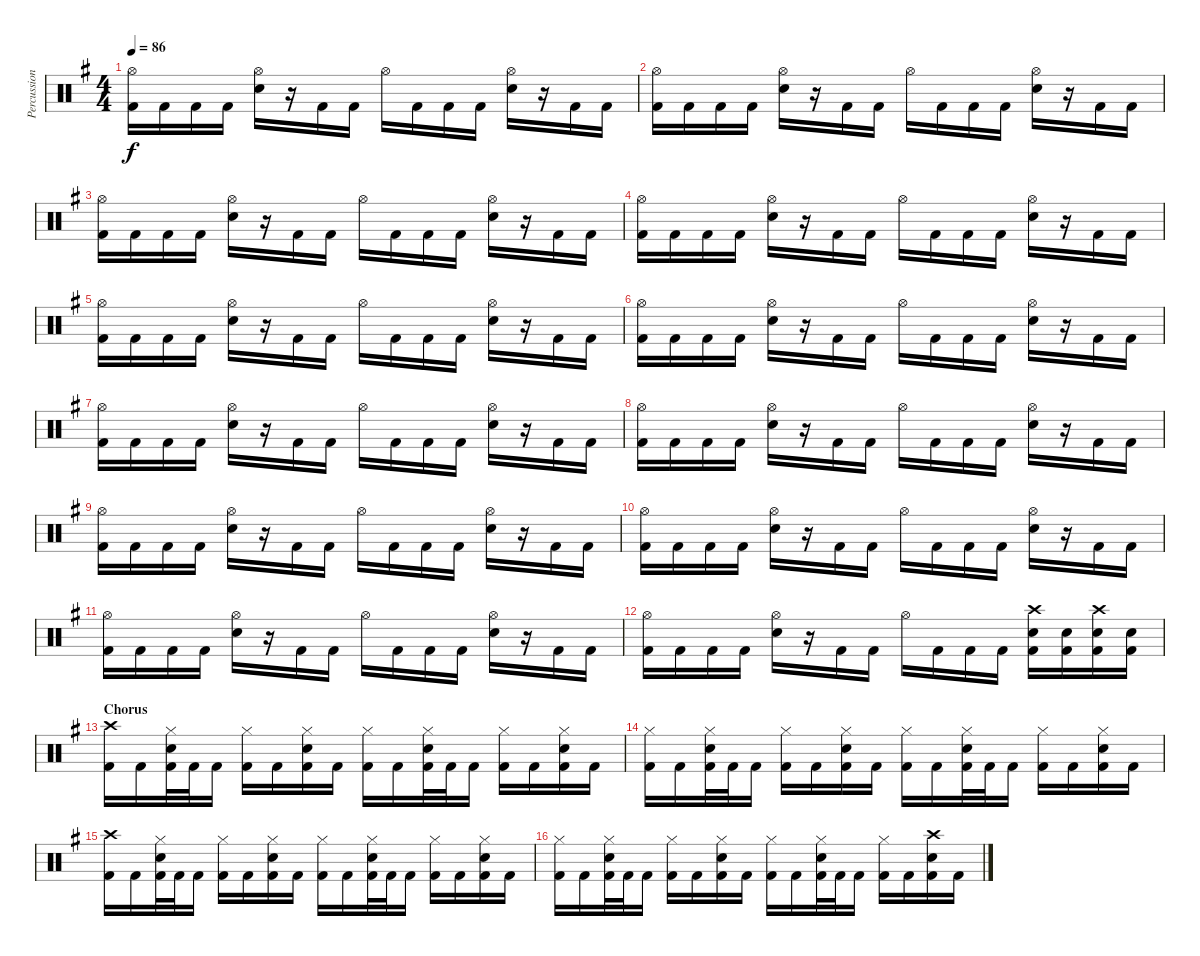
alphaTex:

\track ("Percussions" "Percussion") {instrument percussion}
\staff {score}
\articulation defaults
\ts (4 4)
\tempo 86
\clef neutral
\ks eminor
("Hi-Hat (open)" "Kick (hit) 2").16{dy f} "Kick (hit) 2".16 "Kick (hit) 2".16 "Kick (hit) 2".16 ("Hi-Hat (open)" "Snare (hit) 2").16 r.16 "Kick (hit) 2".16 "Kick (hit) 2".16 "Hi-Hat (open)".16 "Kick (hit) 2".16 "Kick (hit) 2".16 "Kick (hit) 2".16 ("Hi-Hat (open)" "Snare (hit) 2").16 r.16 "Kick (hit) 2".16 "Kick (hit) 2".16 |
("Hi-Hat (open)" "Kick (hit) 2").16 "Kick (hit) 2".16 "Kick (hit) 2".16 "Kick (hit) 2".16 ("Hi-Hat (open)" "Snare (hit) 2").16 r.16 "Kick (hit) 2".16 "Kick (hit) 2".16 "Hi-Hat (open)".16 "Kick (hit) 2".16 "Kick (hit) 2".16 "Kick (hit) 2".16 ("Hi-Hat (open)" "Snare (hit) 2").16 r.16 "Kick (hit) 2".16 "Kick (hit) 2".16 |
("Hi-Hat (open)" "Kick (hit) 2").16 "Kick (hit) 2".16 "Kick (hit) 2".16 "Kick (hit) 2".16 ("Hi-Hat (open)" "Snare (hit) 2").16 r.16 "Kick (hit) 2".16 "Kick (hit) 2".16 "Hi-Hat (open)".16 "Kick (hit) 2".16 "Kick (hit) 2".16 "Kick (hit) 2".16 ("Hi-Hat (open)" "Snare (hit) 2").16 r.16 "Kick (hit) 2".16 "Kick (hit) 2".16 |
("Hi-Hat (open)" "Kick (hit) 2").16 "Kick (hit) 2".16 "Kick (hit) 2".16 "Kick (hit) 2".16 ("Hi-Hat (open)" "Snare (hit) 2").16 r.16 "Kick (hit) 2".16 "Kick (hit) 2".16 "Hi-Hat (open)".16 "Kick (hit) 2".16 "Kick (hit) 2".16 "Kick (hit) 2".16 ("Hi-Hat (open)" "Snare (hit) 2").16 r.16 "Kick (hit) 2".16 "Kick (hit) 2".16 |
("Hi-Hat (open)" "Kick (hit) 2").16 "Kick (hit) 2".16 "Kick (hit) 2".16 "Kick (hit) 2".16 ("Hi-Hat (open)" "Snare (hit) 2").16 r.16 "Kick (hit) 2".16 "Kick (hit) 2".16 "Hi-Hat (open)".16 "Kick (hit) 2".16 "Kick (hit) 2".16 "Kick (hit) 2".16 ("Hi-Hat (open)" "Snare (hit) 2").16 r.16 "Kick (hit) 2".16 "Kick (hit) 2".16 |
("Hi-Hat (open)" "Kick (hit) 2").16 "Kick (hit) 2".16 "Kick (hit) 2".16 "Kick (hit) 2".16 ("Hi-Hat (open)" "Snare (hit) 2").16 r.16 "Kick (hit) 2".16 "Kick (hit) 2".16 "Hi-Hat (open)".16 "Kick (hit) 2".16 "Kick (hit) 2".16 "Kick (hit) 2".16 ("Hi-Hat (open)" "Snare (hit) 2").16 r.16 "Kick (hit) 2".16 "Kick (hit) 2".16 |
("Hi-Hat (open)" "Kick (hit) 2").16 "Kick (hit) 2".16 "Kick (hit) 2".16 "Kick (hit) 2".16 ("Hi-Hat (open)" "Snare (hit) 2").16 r.16 "Kick (hit) 2".16 "Kick (hit) 2".16 "Hi-Hat (open)".16 "Kick (hit) 2".16 "Kick (hit) 2".16 "Kick (hit) 2".16 ("Hi-Hat (open)" "Snare (hit) 2").16 r.16 "Kick (hit) 2".16 "Kick (hit) 2".16 |
("Hi-Hat (open)" "Kick (hit) 2").16 "Kick (hit) 2".16 "Kick (hit) 2".16 "Kick (hit) 2".16 ("Hi-Hat (open)" "Snare (hit) 2").16 r.16 "Kick (hit) 2".16 "Kick (hit) 2".16 "Hi-Hat (open)".16 "Kick (hit) 2".16 "Kick (hit) 2".16 "Kick (hit) 2".16 ("Hi-Hat (open)" "Snare (hit) 2").16 r.16 "Kick (hit) 2".16 "Kick (hit) 2".16 |
("Hi-Hat (open)" "Kick (hit) 2").16 "Kick (hit) 2".16 "Kick (hit) 2".16 "Kick (hit) 2".16 ("Hi-Hat (open)" "Snare (hit) 2").16 r.16 "Kick (hit) 2".16 "Kick (hit) 2".16 "Hi-Hat (open)".16 "Kick (hit) 2".16 "Kick (hit) 2".16 "Kick (hit) 2".16 ("Hi-Hat (open)" "Snare (hit) 2").16 r.16 "Kick (hit) 2".16 "Kick (hit) 2".16 |
("Hi-Hat (open)" "Kick (hit) 2").16 "Kick (hit) 2".16 "Kick (hit) 2".16 "Kick (hit) 2".16 ("Hi-Hat (open)" "Snare (hit) 2").16 r.16 "Kick (hit) 2".16 "Kick (hit) 2".16 "Hi-Hat (open)".16 "Kick (hit) 2".16 "Kick (hit) 2".16 "Kick (hit) 2".16 ("Hi-Hat (open)" "Snare (hit) 2").16 r.16 "Kick (hit) 2".16 "Kick (hit) 2".16 |
("Hi-Hat (open)" "Kick (hit) 2").16 "Kick (hit) 2".16 "Kick (hit) 2".16 "Kick (hit) 2".16 ("Hi-Hat (open)" "Snare (hit) 2").16 r.16 "Kick (hit) 2".16 "Kick (hit) 2".16 "Hi-Hat (open)".16 "Kick (hit) 2".16 "Kick (hit) 2".16 "Kick (hit) 2".16 ("Hi-Hat (open)" "Snare (hit) 2").16 r.16 "Kick (hit) 2".16 "Kick (hit) 2".16 |
("Hi-Hat (open)" "Kick (hit) 2").16 "Kick (hit) 2".16 "Kick (hit) 2".16 "Kick (hit) 2".16 ("Hi-Hat (open)" "Snare (hit) 2").16 r.16 "Kick (hit) 2".16 "Kick (hit) 2".16 "Hi-Hat (open)".16 "Kick (hit) 2".16 "Kick (hit) 2".16 "Kick (hit) 2".16 ("Crash high (hit)" "Snare (hit) 2" "Kick (hit) 2").16 ("Snare (hit) 2" "Kick (hit) 2").16 ("Crash high (hit)" "Snare (hit) 2" "Kick (hit) 2").16 ("Snare (hit) 2" "Kick (hit) 2").16 |
\section ("" "Chorus")
("Crash high (hit)" "Kick (hit) 2").16 "Kick (hit) 2".16 ("Hi-Hat (closed)" "Snare (hit) 2" "Kick (hit) 2").32 "Kick (hit) 2".32 "Kick (hit) 2".16 ("Hi-Hat (closed)" "Kick (hit) 2").16 "Kick (hit) 2".16 ("Hi-Hat (closed)" "Snare (hit) 2" "Kick (hit) 2").16 "Kick (hit) 2".16 ("Hi-Hat (closed)" "Kick (hit) 2").16 "Kick (hit) 2".16 ("Hi-Hat (closed)" "Snare (hit) 2" "Kick (hit) 2").32 "Kick (hit) 2".32 "Kick (hit) 2".16 ("Hi-Hat (closed)" "Kick (hit) 2").16 "Kick (hit) 2".16 ("Hi-Hat (closed)" "Snare (hit) 2" "Kick (hit) 2").16 "Kick (hit) 2".16 |
("Hi-Hat (closed)" "Kick (hit) 2").16 "Kick (hit) 2".16 ("Hi-Hat (closed)" "Snare (hit) 2" "Kick (hit) 2").32 "Kick (hit) 2".32 "Kick (hit) 2".16 ("Hi-Hat (closed)" "Kick (hit) 2").16 "Kick (hit) 2".16 ("Hi-Hat (closed)" "Snare (hit) 2" "Kick (hit) 2").16 "Kick (hit) 2".16 ("Hi-Hat (closed)" "Kick (hit) 2").16 "Kick (hit) 2".16 ("Hi-Hat (closed)" "Snare (hit) 2" "Kick (hit) 2").32 "Kick (hit) 2".32 "Kick (hit) 2".16 ("Hi-Hat (closed)" "Kick (hit) 2").16 "Kick (hit) 2".16 ("Hi-Hat (closed)" "Snare (hit) 2" "Kick (hit) 2").16 "Kick (hit) 2".16 |
("Crash high (hit)" "Kick (hit) 2").16 "Kick (hit) 2".16 ("Hi-Hat (closed)" "Snare (hit) 2" "Kick (hit) 2").32 "Kick (hit) 2".32 "Kick (hit) 2".16 ("Hi-Hat (closed)" "Kick (hit) 2").16 "Kick (hit) 2".16 ("Hi-Hat (closed)" "Snare (hit) 2" "Kick (hit) 2").16 "Kick (hit) 2".16 ("Hi-Hat (closed)" "Kick (hit) 2").16 "Kick (hit) 2".16 ("Hi-Hat (closed)" "Snare (hit) 2" "Kick (hit) 2").32 "Kick (hit) 2".32 "Kick (hit) 2".16 ("Hi-Hat (closed)" "Kick (hit) 2").16 "Kick (hit) 2".16 ("Hi-Hat (closed)" "Snare (hit) 2" "Kick (hit) 2").16 "Kick (hit) 2".16 |
("Hi-Hat (closed)" "Kick (hit) 2").16 "Kick (hit) 2".16 ("Hi-Hat (closed)" "Snare (hit) 2" "Kick (hit) 2").32 "Kick (hit) 2".32 "Kick (hit) 2".16 ("Hi-Hat (closed)" "Kick (hit) 2").16 "Kick (hit) 2".16 ("Hi-Hat (closed)" "Snare (hit) 2" "Kick (hit) 2").16 "Kick (hit) 2".16 ("Hi-Hat (closed)" "Kick (hit) 2").16 "Kick (hit) 2".16 ("Hi-Hat (closed)" "Snare (hit) 2" "Kick (hit) 2").32 "Kick (hit) 2".32 "Kick (hit) 2".16 ("Hi-Hat (closed)" "Kick (hit) 2").16 "Kick (hit) 2".16 ("Crash high (hit)" "Snare (hit) 2" "Kick (hit) 2").16 "Kick (hit) 2".16
